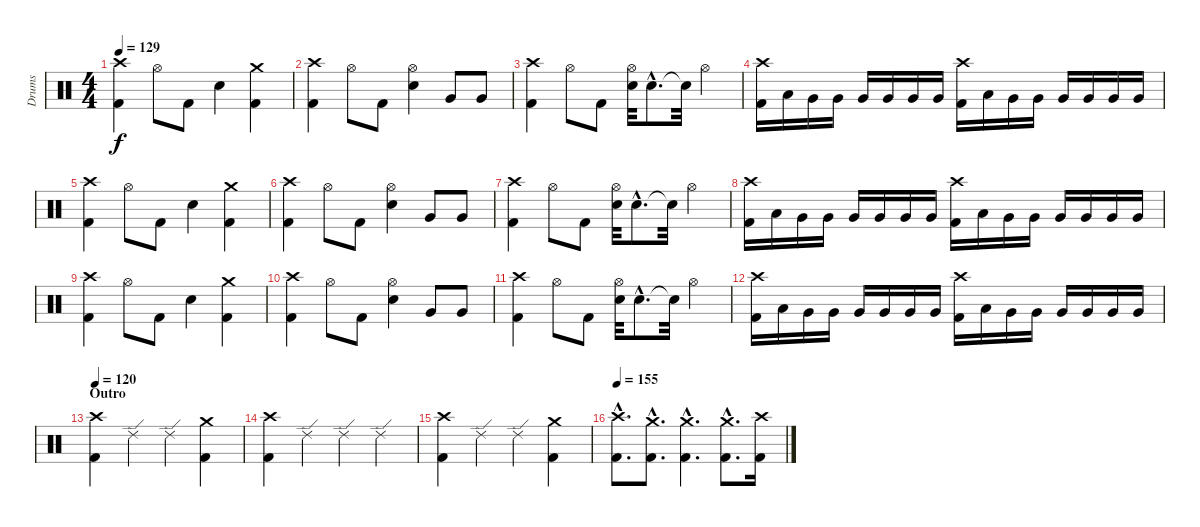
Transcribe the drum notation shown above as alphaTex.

\track ("Drums" "Drums") {instrument percussion}
\staff {score}
\articulation defaults
\ts (4 4)
\tempo 129
\clef neutral
\ks c
("Crash high (hit)" "Kick (hit) 2").4{dy f} "Hi-Hat (open)".8 "Kick (hit) 2".8 "Snare (hit) 2".4 ("Crash medium (hit)" "Kick (hit) 2").4 |
("Crash high (hit)" "Kick (hit) 2").4 "Hi-Hat (open)".8 "Kick (hit) 2".8 ("Hi-Hat (open)" "Snare (hit) 2").4 "Very Low Tom (hit)".8 "Very Low Tom (hit)".8 |
("Crash high (hit)" "Kick (hit) 2").4 "Hi-Hat (open)".8 "Kick (hit) 2".8 ("Hi-Hat (open)" "Snare (hit) 2").32 "Snare (hit) 2"{hac}.8{d} "Snare (hit)"{t}.32 "Hi-Hat (open)".4 |
("Crash high (hit)" "Kick (hit) 2").16 "Low Tom (hit)".16 "Very Low Tom (hit)".16 "Very Low Tom (hit)".16 "Very Low Tom (hit)".16 "Very Low Tom (hit)".16 "Very Low Tom (hit)".16 "Very Low Tom (hit)".16 ("Crash high (hit)" "Kick (hit) 2").16 "Low Tom (hit)".16 "Very Low Tom (hit)".16 "Very Low Tom (hit)".16 "Very Low Tom (hit)".16 "Very Low Tom (hit)".16 "Very Low Tom (hit)".16 "Very Low Tom (hit)".16 |
("Crash high (hit)" "Kick (hit) 2").4 "Hi-Hat (open)".8 "Kick (hit) 2".8 "Snare (hit) 2".4 ("Crash medium (hit)" "Kick (hit) 2").4 |
("Crash high (hit)" "Kick (hit) 2").4 "Hi-Hat (open)".8 "Kick (hit) 2".8 ("Hi-Hat (open)" "Snare (hit) 2").4 "Very Low Tom (hit)".8 "Very Low Tom (hit)".8 |
("Crash high (hit)" "Kick (hit) 2").4 "Hi-Hat (open)".8 "Kick (hit) 2".8 ("Hi-Hat (open)" "Snare (hit) 2").32 "Snare (hit) 2"{hac}.8{d} "Snare (hit)"{t}.32 "Hi-Hat (open)".4 |
("Crash high (hit)" "Kick (hit) 2").16 "Low Tom (hit)".16 "Very Low Tom (hit)".16 "Very Low Tom (hit)".16 "Very Low Tom (hit)".16 "Very Low Tom (hit)".16 "Very Low Tom (hit)".16 "Very Low Tom (hit)".16 ("Crash high (hit)" "Kick (hit) 2").16 "Low Tom (hit)".16 "Very Low Tom (hit)".16 "Very Low Tom (hit)".16 "Very Low Tom (hit)".16 "Very Low Tom (hit)".16 "Very Low Tom (hit)".16 "Very Low Tom (hit)".16 |
("Crash high (hit)" "Kick (hit) 2").4 "Hi-Hat (open)".8 "Kick (hit) 2".8 "Snare (hit) 2".4 ("Crash medium (hit)" "Kick (hit) 2").4 |
("Crash high (hit)" "Kick (hit) 2").4 "Hi-Hat (open)".8 "Kick (hit) 2".8 ("Hi-Hat (open)" "Snare (hit) 2").4 "Very Low Tom (hit)".8 "Very Low Tom (hit)".8 |
("Crash high (hit)" "Kick (hit) 2").4 "Hi-Hat (open)".8 "Kick (hit) 2".8 ("Hi-Hat (open)" "Snare (hit) 2").32 "Snare (hit) 2"{hac}.8{d} "Snare (hit)"{t}.32 "Hi-Hat (open)".4 |
("Crash high (hit)" "Kick (hit) 2").16 "Low Tom (hit)".16 "Very Low Tom (hit)".16 "Very Low Tom (hit)".16 "Very Low Tom (hit)".16 "Very Low Tom (hit)".16 "Very Low Tom (hit)".16 "Very Low Tom (hit)".16 ("Crash high (hit)" "Kick (hit) 2").16 "Low Tom (hit)".16 "Very Low Tom (hit)".16 "Very Low Tom (hit)".16 "Very Low Tom (hit)".16 "Very Low Tom (hit)".16 "Very Low Tom (hit)".16 "Very Low Tom (hit)".16 |
\section ("" "Outro")
\tempo 120
("Crash high (hit)" "Kick (hit) 2").4 "Ride (edge) 2".4 "Ride (edge) 2".4 ("Crash medium (hit)" "Kick (hit) 2").4 |
("Crash high (hit)" "Kick (hit) 2").4 "Ride (edge) 2".4 "Ride (edge) 2".4 "Ride (edge) 2".4 |
("Crash high (hit)" "Kick (hit) 2").4 "Ride (edge) 2".4 "Ride (edge) 2".4 ("Crash medium (hit)" "Kick (hit) 2").4 |
\tempo 165
\tempo 155
("Crash high (hit)"{hac} "Kick (hit) 2"{hac}).8{d} ("Crash medium (hit)"{hac} "Kick (hit) 2"{hac}).8{d} ("Crash medium (hit)"{hac} "Kick (hit) 2"{hac}).4{d} ("Crash medium (hit)"{hac} "Kick (hit) 2"{hac}).8{d} ("Crash high (hit)" "Kick (hit) 2").16
